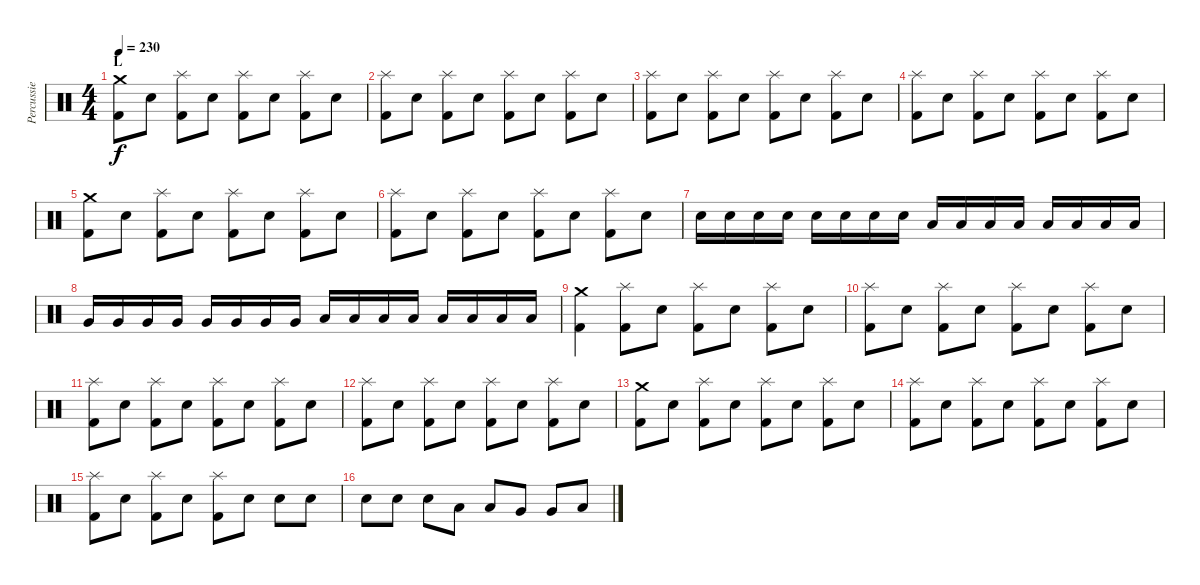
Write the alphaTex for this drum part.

\track ("Percussie" "Percussie") {instrument percussion}
\staff {score}
\articulation defaults
\ts (4 4)
\section ("" "L")
\tempo 230
\clef neutral
\ks c
("Crash medium (hit)" "Kick (hit) 2").8{dy f} "Electric Snare (hit)".8 ("Splash (hit)" "Kick (hit) 2").8 "Electric Snare (hit)".8 ("Splash (hit)" "Kick (hit) 2").8 "Electric Snare (hit)".8 ("Splash (hit)" "Kick (hit) 2").8 "Electric Snare (hit)".8 |
("Splash (hit)" "Kick (hit) 2").8 "Electric Snare (hit)".8 ("Splash (hit)" "Kick (hit) 2").8 "Electric Snare (hit)".8 ("Splash (hit)" "Kick (hit) 2").8 "Electric Snare (hit)".8 ("Splash (hit)" "Kick (hit) 2").8 "Electric Snare (hit)".8 |
("Splash (hit)" "Kick (hit) 2").8 "Electric Snare (hit)".8 ("Splash (hit)" "Kick (hit) 2").8 "Electric Snare (hit)".8 ("Splash (hit)" "Kick (hit) 2").8 "Electric Snare (hit)".8 ("Splash (hit)" "Kick (hit) 2").8 "Electric Snare (hit)".8 |
("Splash (hit)" "Kick (hit) 2").8 "Electric Snare (hit)".8 ("Splash (hit)" "Kick (hit) 2").8 "Electric Snare (hit)".8 ("Splash (hit)" "Kick (hit) 2").8 "Electric Snare (hit)".8 ("Splash (hit)" "Kick (hit) 2").8 "Electric Snare (hit)".8 |
("Crash medium (hit)" "Kick (hit) 2").8 "Electric Snare (hit)".8 ("Splash (hit)" "Kick (hit) 2").8 "Electric Snare (hit)".8 ("Splash (hit)" "Kick (hit) 2").8 "Electric Snare (hit)".8 ("Splash (hit)" "Kick (hit) 2").8 "Electric Snare (hit)".8 |
("Splash (hit)" "Kick (hit) 2").8 "Electric Snare (hit)".8 ("Splash (hit)" "Kick (hit) 2").8 "Electric Snare (hit)".8 ("Splash (hit)" "Kick (hit) 2").8 "Electric Snare (hit)".8 ("Splash (hit)" "Kick (hit) 2").8 "Electric Snare (hit)".8 |
"Electric Snare (hit)".16 "Electric Snare (hit)".16 "Electric Snare (hit)".16 "Electric Snare (hit)".16 "Electric Snare (hit)".16 "Electric Snare (hit)".16 "Electric Snare (hit)".16 "Electric Snare (hit)".16 "Low Tom (hit)".16 "Low Tom (hit)".16 "Low Tom (hit)".16 "Low Tom (hit)".16 "Low Tom (hit)".16 "Low Tom (hit)".16 "Low Tom (hit)".16 "Low Tom (hit)".16 |
"Very Low Tom (hit)".16 "Very Low Tom (hit)".16 "Very Low Tom (hit)".16 "Very Low Tom (hit)".16 "Very Low Tom (hit)".16 "Very Low Tom (hit)".16 "Very Low Tom (hit)".16 "Very Low Tom (hit)".16 "Low Floor Tom (hit)".16 "Low Floor Tom (hit)".16 "Low Floor Tom (hit)".16 "Low Floor Tom (hit)".16 "Low Floor Tom (hit)".16 "Low Floor Tom (hit)".16 "Low Floor Tom (hit)".16 "Low Floor Tom (hit)".16 |
("Crash medium (hit)" "Kick (hit) 2").4 ("Splash (hit)" "Kick (hit) 2").8 "Electric Snare (hit)".8 ("Splash (hit)" "Kick (hit) 2").8 "Electric Snare (hit)".8 ("Splash (hit)" "Kick (hit) 2").8 "Electric Snare (hit)".8 |
("Splash (hit)" "Kick (hit) 2").8 "Electric Snare (hit)".8 ("Splash (hit)" "Kick (hit) 2").8 "Electric Snare (hit)".8 ("Splash (hit)" "Kick (hit) 2").8 "Electric Snare (hit)".8 ("Splash (hit)" "Kick (hit) 2").8 "Electric Snare (hit)".8 |
("Splash (hit)" "Kick (hit) 2").8 "Electric Snare (hit)".8 ("Splash (hit)" "Kick (hit) 2").8 "Electric Snare (hit)".8 ("Splash (hit)" "Kick (hit) 2").8 "Electric Snare (hit)".8 ("Splash (hit)" "Kick (hit) 2").8 "Electric Snare (hit)".8 |
("Splash (hit)" "Kick (hit) 2").8 "Electric Snare (hit)".8 ("Splash (hit)" "Kick (hit) 2").8 "Electric Snare (hit)".8 ("Splash (hit)" "Kick (hit) 2").8 "Electric Snare (hit)".8 ("Splash (hit)" "Kick (hit) 2").8 "Electric Snare (hit)".8 |
("Crash medium (hit)" "Kick (hit) 2").8 "Electric Snare (hit)".8 ("Splash (hit)" "Kick (hit) 2").8 "Electric Snare (hit)".8 ("Splash (hit)" "Kick (hit) 2").8 "Electric Snare (hit)".8 ("Splash (hit)" "Kick (hit) 2").8 "Electric Snare (hit)".8 |
("Splash (hit)" "Kick (hit) 2").8 "Electric Snare (hit)".8 ("Splash (hit)" "Kick (hit) 2").8 "Electric Snare (hit)".8 ("Splash (hit)" "Kick (hit) 2").8 "Electric Snare (hit)".8 ("Splash (hit)" "Kick (hit) 2").8 "Electric Snare (hit)".8 |
("Splash (hit)" "Kick (hit) 2").8 "Electric Snare (hit)".8 ("Splash (hit)" "Kick (hit) 2").8 "Electric Snare (hit)".8 ("Splash (hit)" "Kick (hit) 2").8 "Electric Snare (hit)".8 "Electric Snare (hit)".8 "Electric Snare (hit)".8 |
"Electric Snare (hit)".8 "Electric Snare (hit)".8 "Electric Snare (hit)".8 "Low Tom (hit)".8 "Low Tom (hit)".8 "Very Low Tom (hit)".8 "Very Low Tom (hit)".8 "Low Floor Tom (hit)".8
